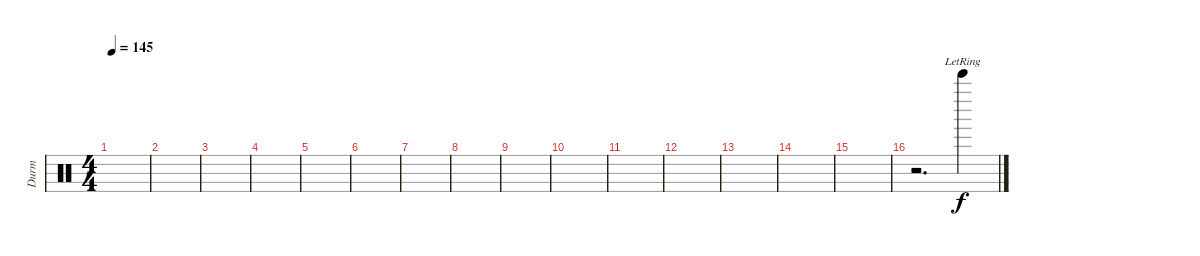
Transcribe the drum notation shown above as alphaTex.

\track ("Durm" "Durm") {instrument percussion}
\staff {score}
\articulation defaults
\ts (4 4)
\tempo 145
\clef neutral
\ks c
|
|
|
|
|
|
|
|
|
|
|
|
|
|
|
r.2{d} "Bell Tree (hit)"{lr}.4
